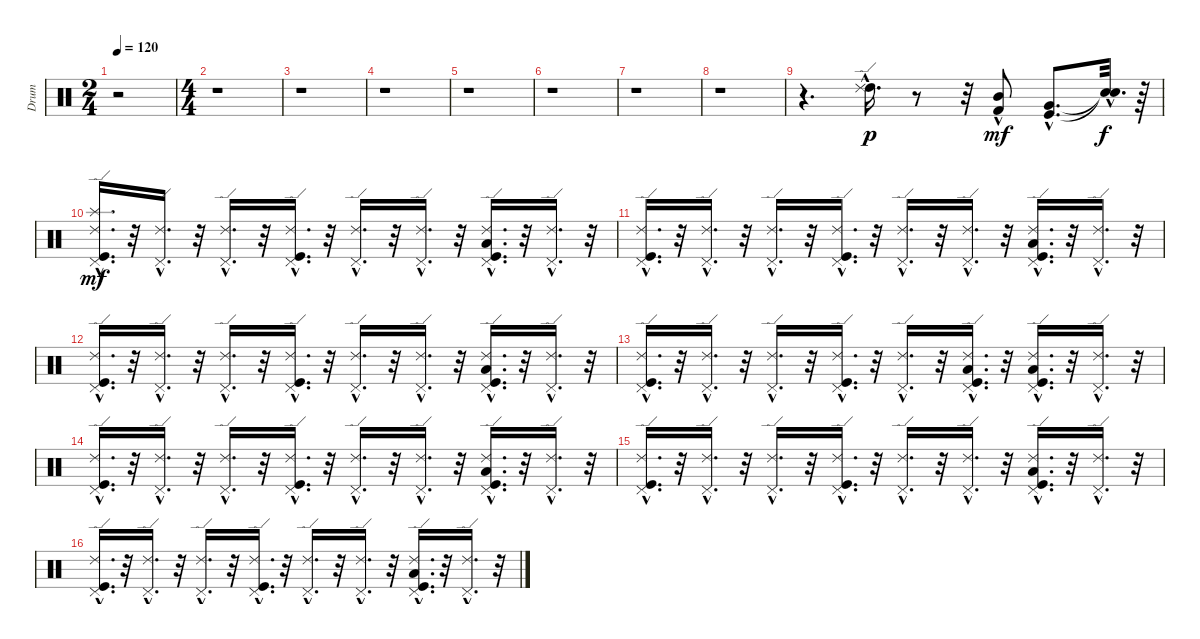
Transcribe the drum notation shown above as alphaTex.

\track ("Drum" "Drum") {instrument percussion}
\staff {score}
\articulation defaults
\ts (2 4)
\tempo 120
\clef neutral
\ks c
r.2{dy p} |
\ts (4 4)
r.1 |
r.1 |
r.1 |
r.1 |
r.1 |
r.1 |
r.1 |
r.4{d} ("High Tom (hit)"{hac} "Ride (edge) 2"{hac}).16{d} r.8 r.32 ("Kick (hit) 2"{hac} "Mid Tom (hit)").8{dy mf} ("Kick (hit)"{hac} "Very Low Tom (hit)"{hac}).8{d} ("Snare (hit)"{hac t} "Snare (hit)"{hac t}).32{d dy f} r.64 |
("Splash (hit)"{hac} "Ride (edge) 2"{hac} "Kick (hit)"{hac} "Pedal Hi-Hat (hit)"{hac}).16{d dy mf} r.32 ("Ride (edge) 2"{hac} "Pedal Hi-Hat (hit)"{hac}).16{d} r.32 ("Ride (edge) 2"{hac} "Pedal Hi-Hat (hit)"{hac}).16{d} r.32 ("Ride (edge) 2"{hac} "Kick (hit)"{hac} "Pedal Hi-Hat (hit)"{hac}).16{d} r.32 ("Ride (edge) 2"{hac} "Pedal Hi-Hat (hit)"{hac}).16{d} r.32 ("Ride (edge) 2"{hac} "Pedal Hi-Hat (hit)"{hac}).16{d} r.32 ("Ride (edge) 2"{hac} "Low Tom (hit)"{hac} "Kick (hit)"{hac} "Pedal Hi-Hat (hit)"{hac}).16{d} r.32 ("Ride (edge) 2"{hac} "Pedal Hi-Hat (hit)"{hac}).16{d} r.32 |
("Pedal Hi-Hat (hit)"{hac} "Kick (hit)"{hac} "Ride (edge) 2"{hac}).16{d} r.32 ("Pedal Hi-Hat (hit)"{hac} "Ride (edge) 2"{hac}).16{d} r.32 ("Pedal Hi-Hat (hit)"{hac} "Ride (edge) 2"{hac}).16{d} r.32 ("Pedal Hi-Hat (hit)"{hac} "Kick (hit)"{hac} "Ride (edge) 2"{hac}).16{d} r.32 ("Pedal Hi-Hat (hit)"{hac} "Ride (edge) 2"{hac}).16{d} r.32 ("Pedal Hi-Hat (hit)"{hac} "Ride (edge) 2"{hac}).16{d} r.32 ("Pedal Hi-Hat (hit)"{hac} "Kick (hit)"{hac} "Low Tom (hit)"{hac} "Ride (edge) 2"{hac}).16{d} r.32 ("Pedal Hi-Hat (hit)"{hac} "Ride (edge) 2"{hac}).16{d} r.32 |
("Pedal Hi-Hat (hit)"{hac} "Kick (hit)"{hac} "Ride (edge) 2"{hac}).16{d} r.32 ("Pedal Hi-Hat (hit)"{hac} "Ride (edge) 2"{hac}).16{d} r.32 ("Pedal Hi-Hat (hit)"{hac} "Ride (edge) 2"{hac}).16{d} r.32 ("Pedal Hi-Hat (hit)"{hac} "Kick (hit)"{hac} "Ride (edge) 2"{hac}).16{d} r.32 ("Pedal Hi-Hat (hit)"{hac} "Ride (edge) 2"{hac}).16{d} r.32 ("Pedal Hi-Hat (hit)"{hac} "Ride (edge) 2"{hac}).16{d} r.32 ("Pedal Hi-Hat (hit)"{hac} "Kick (hit)"{hac} "Low Tom (hit)"{hac} "Ride (edge) 2"{hac}).16{d} r.32 ("Pedal Hi-Hat (hit)"{hac} "Ride (edge) 2"{hac}).16{d} r.32 |
("Pedal Hi-Hat (hit)"{hac} "Ride (edge) 2"{hac} "Kick (hit)"{hac}).16{d} r.32 ("Ride (edge) 2"{hac} "Pedal Hi-Hat (hit)"{hac}).16{d} r.32 ("Ride (edge) 2"{hac} "Pedal Hi-Hat (hit)"{hac}).16{d} r.32 ("Kick (hit)"{hac} "Ride (edge) 2"{hac} "Pedal Hi-Hat (hit)"{hac}).16{d} r.32 ("Ride (edge) 2"{hac} "Pedal Hi-Hat (hit)"{hac}).16{d} r.32 ("Pedal Hi-Hat (hit)"{hac} "Kick (hit)"{hac} "Low Tom (hit)"{hac} "Ride (edge) 2"{hac}).16{d} r.32 ("Ride (edge) 2"{hac} "Low Tom (hit)"{hac} "Kick (hit)"{hac} "Pedal Hi-Hat (hit)"{hac}).16{d} r.32 ("Ride (edge) 2"{hac} "Pedal Hi-Hat (hit)"{hac}).16{d} r.32 |
("Pedal Hi-Hat (hit)"{hac} "Kick (hit)"{hac} "Ride (edge) 2"{hac}).16{d} r.32 ("Pedal Hi-Hat (hit)"{hac} "Ride (edge) 2"{hac}).16{d} r.32 ("Pedal Hi-Hat (hit)"{hac} "Ride (edge) 2"{hac}).16{d} r.32 ("Pedal Hi-Hat (hit)"{hac} "Kick (hit)"{hac} "Ride (edge) 2"{hac}).16{d} r.32 ("Pedal Hi-Hat (hit)"{hac} "Ride (edge) 2"{hac}).16{d} r.32 ("Pedal Hi-Hat (hit)"{hac} "Ride (edge) 2"{hac}).16{d} r.32 ("Pedal Hi-Hat (hit)"{hac} "Kick (hit)"{hac} "Low Tom (hit)"{hac} "Ride (edge) 2"{hac}).16{d} r.32 ("Pedal Hi-Hat (hit)"{hac} "Ride (edge) 2"{hac}).16{d} r.32 |
("Ride (edge) 2"{hac} "Kick (hit)"{hac} "Pedal Hi-Hat (hit)"{hac}).16{d} r.32 ("Ride (edge) 2"{hac} "Pedal Hi-Hat (hit)"{hac}).16{d} r.32 ("Ride (edge) 2"{hac} "Pedal Hi-Hat (hit)"{hac}).16{d} r.32 ("Ride (edge) 2"{hac} "Kick (hit)"{hac} "Pedal Hi-Hat (hit)"{hac}).16{d} r.32 ("Ride (edge) 2"{hac} "Pedal Hi-Hat (hit)"{hac}).16{d} r.32 ("Ride (edge) 2"{hac} "Pedal Hi-Hat (hit)"{hac}).16{d} r.32 ("Ride (edge) 2"{hac} "Low Tom (hit)"{hac} "Kick (hit)"{hac} "Pedal Hi-Hat (hit)"{hac}).16{d} r.32 ("Ride (edge) 2"{hac} "Pedal Hi-Hat (hit)"{hac}).16{d} r.32 |
("Ride (edge) 2"{hac} "Kick (hit)"{hac} "Pedal Hi-Hat (hit)"{hac}).16{d} r.32 ("Ride (edge) 2"{hac} "Pedal Hi-Hat (hit)"{hac}).16{d} r.32 ("Ride (edge) 2"{hac} "Pedal Hi-Hat (hit)"{hac}).16{d} r.32 ("Ride (edge) 2"{hac} "Kick (hit)"{hac} "Pedal Hi-Hat (hit)"{hac}).16{d} r.32 ("Ride (edge) 2"{hac} "Pedal Hi-Hat (hit)"{hac}).16{d} r.32 ("Ride (edge) 2"{hac} "Pedal Hi-Hat (hit)"{hac}).16{d} r.32 ("Ride (edge) 2"{hac} "Low Tom (hit)"{hac} "Kick (hit)"{hac} "Pedal Hi-Hat (hit)"{hac}).16{d} r.32 ("Ride (edge) 2"{hac} "Pedal Hi-Hat (hit)"{hac}).16{d} r.32
